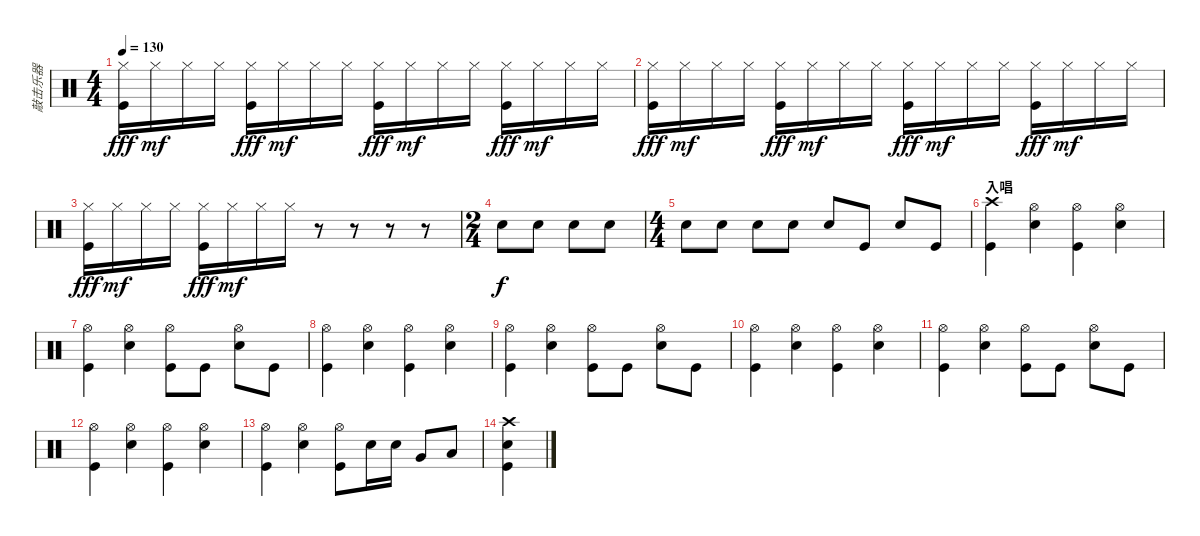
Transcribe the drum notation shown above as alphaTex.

\track ("敲击乐器" "敲击乐器") {instrument percussion}
\staff {score}
\articulation defaults
\ts (4 4)
\tempo 130
\clef neutral
\ks c
("Hi-Hat (closed)" "Kick (hit)").16{dy fff} "Hi-Hat (closed)".16{dy mf} "Hi-Hat (closed)".16 "Hi-Hat (closed)".16 ("Hi-Hat (closed)" "Kick (hit)").16{dy fff} "Hi-Hat (closed)".16{dy mf} "Hi-Hat (closed)".16 "Hi-Hat (closed)".16 ("Hi-Hat (closed)" "Kick (hit)").16{dy fff} "Hi-Hat (closed)".16{dy mf} "Hi-Hat (closed)".16 "Hi-Hat (closed)".16 ("Hi-Hat (closed)" "Kick (hit)").16{dy fff} "Hi-Hat (closed)".16{dy mf} "Hi-Hat (closed)".16 "Hi-Hat (closed)".16 |
("Hi-Hat (closed)" "Kick (hit)").16{dy fff} "Hi-Hat (closed)".16{dy mf} "Hi-Hat (closed)".16 "Hi-Hat (closed)".16 ("Hi-Hat (closed)" "Kick (hit)").16{dy fff} "Hi-Hat (closed)".16{dy mf} "Hi-Hat (closed)".16 "Hi-Hat (closed)".16 ("Hi-Hat (closed)" "Kick (hit)").16{dy fff} "Hi-Hat (closed)".16{dy mf} "Hi-Hat (closed)".16 "Hi-Hat (closed)".16 ("Hi-Hat (closed)" "Kick (hit)").16{dy fff} "Hi-Hat (closed)".16{dy mf} "Hi-Hat (closed)".16 "Hi-Hat (closed)".16 |
("Hi-Hat (closed)" "Kick (hit)").16{dy fff} "Hi-Hat (closed)".16{dy mf} "Hi-Hat (closed)".16 "Hi-Hat (closed)".16 ("Hi-Hat (closed)" "Kick (hit)").16{dy fff} "Hi-Hat (closed)".16{dy mf} "Hi-Hat (closed)".16 "Hi-Hat (closed)".16 r.8 r.8 r.8 r.8 |
\ts (2 4)
"Snare (hit) 2".8{dy f} "Snare (hit) 2".8 "Snare (hit) 2".8 "Snare (hit) 2".8 |
\ts (4 4)
"Snare (hit) 2".8 "Snare (hit) 2".8 "Snare (hit) 2".8 "Snare (hit) 2".8 "Snare (hit) 2".8 "Kick (hit)".8 "Snare (hit) 2".8 "Kick (hit)".8 |
\section ("" "入唱")
("Crash high (hit)" "Kick (hit)").4 ("Hi-Hat (open)" "Snare (hit) 2").4 ("Hi-Hat (open)" "Kick (hit)").4 ("Hi-Hat (open)" "Snare (hit) 2").4 |
("Hi-Hat (open)" "Kick (hit)").4 ("Hi-Hat (open)" "Snare (hit) 2").4 ("Hi-Hat (open)" "Kick (hit)").8 "Kick (hit)".8 ("Hi-Hat (open)" "Snare (hit) 2").8 "Kick (hit)".8 |
("Hi-Hat (open)" "Kick (hit)").4 ("Hi-Hat (open)" "Snare (hit) 2").4 ("Hi-Hat (open)" "Kick (hit)").4 ("Hi-Hat (open)" "Snare (hit) 2").4 |
("Hi-Hat (open)" "Kick (hit)").4 ("Hi-Hat (open)" "Snare (hit) 2").4 ("Hi-Hat (open)" "Kick (hit)").8 "Kick (hit)".8 ("Hi-Hat (open)" "Snare (hit) 2").8 "Kick (hit)".8 |
("Hi-Hat (open)" "Kick (hit)").4 ("Hi-Hat (open)" "Snare (hit) 2").4 ("Hi-Hat (open)" "Kick (hit)").4 ("Hi-Hat (open)" "Snare (hit) 2").4 |
("Hi-Hat (open)" "Kick (hit)").4 ("Hi-Hat (open)" "Snare (hit) 2").4 ("Hi-Hat (open)" "Kick (hit)").8 "Kick (hit)".8 ("Hi-Hat (open)" "Snare (hit) 2").8 "Kick (hit)".8 |
("Hi-Hat (open)" "Kick (hit)").4 ("Hi-Hat (open)" "Snare (hit) 2").4 ("Hi-Hat (open)" "Kick (hit)").4 ("Hi-Hat (open)" "Snare (hit) 2").4 |
("Hi-Hat (open)" "Kick (hit)").4 ("Hi-Hat (open)" "Snare (hit) 2").4 ("Hi-Hat (open)" "Kick (hit)").8 "Snare (hit) 2".16 "Snare (hit) 2".16 "Very Low Tom (hit)".8 "Low Floor Tom (hit)".8 |
("Crash high (hit)" "Snare (hit) 2" "Kick (hit)").4
